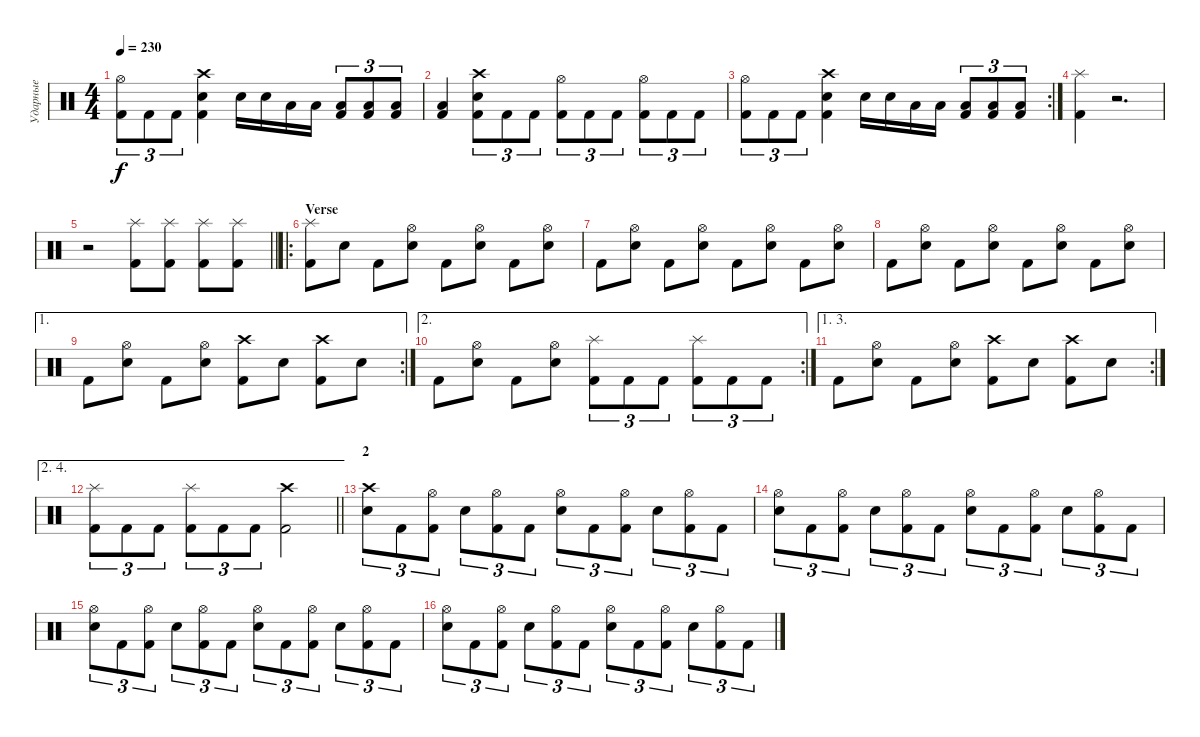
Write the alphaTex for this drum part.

\track ("Ударные" "Ударные") {instrument percussion}
\staff {score}
\articulation defaults
\ts (4 4)
\tempo 230
\clef neutral
\ks c
("Hi-Hat (open)" "Kick (hit) 2").8{tu (3 2) dy f} "Kick (hit) 2".8{tu (3 2)} "Kick (hit) 2".8{tu (3 2)} ("Snare (hit) 2" "Crash high (hit)" "Kick (hit) 2").4 "Snare (hit) 2".16 "Snare (hit) 2".16 "Low Tom (hit)".16 "Low Tom (hit)".16 ("Kick (hit) 2" "Low Floor Tom (hit)").8{tu (3 2)} ("Kick (hit) 2" "Low Floor Tom (hit)").8{tu (3 2)} ("Kick (hit) 2" "Low Floor Tom (hit)").8{tu (3 2)} |
("Low Floor Tom (hit)" "Kick (hit) 2").4 ("Snare (hit) 2" "Crash high (hit)" "Kick (hit) 2").8{tu (3 2)} "Kick (hit) 2".8{tu (3 2)} "Kick (hit) 2".8{tu (3 2)} ("Hi-Hat (open)" "Kick (hit) 2").8{tu (3 2)} "Kick (hit) 2".8{tu (3 2)} "Kick (hit) 2".8{tu (3 2)} ("Hi-Hat (open)" "Kick (hit) 2").8{tu (3 2)} "Kick (hit) 2".8{tu (3 2)} "Kick (hit) 2".8{tu (3 2)} |
\rc 2
("Hi-Hat (open)" "Kick (hit) 2").8{tu (3 2)} "Kick (hit) 2".8{tu (3 2)} "Kick (hit) 2".8{tu (3 2)} ("Snare (hit) 2" "Crash high (hit)" "Kick (hit) 2").4 "Snare (hit) 2".16 "Snare (hit) 2".16 "Low Tom (hit)".16 "Low Tom (hit)".16 ("Kick (hit) 2" "Low Floor Tom (hit)").8{tu (3 2)} ("Kick (hit) 2" "Low Floor Tom (hit)").8{tu (3 2)} ("Kick (hit) 2" "Low Floor Tom (hit)").8{tu (3 2)} |
("Splash (hit)" "Kick (hit) 2").4 r.2{d} |
\barLineRight lightlight
r.2 ("Splash (hit)" "Kick (hit) 2").8 ("Splash (hit)" "Kick (hit) 2").8 ("Splash (hit)" "Kick (hit) 2").8 ("Splash (hit)" "Kick (hit) 2").8 |
\ro
\section ("" "Verse")
("Splash (hit)" "Kick (hit) 2").8 "Snare (hit) 2".8 "Kick (hit) 2".8 ("Hi-Hat (open)" "Snare (hit) 2").8 "Kick (hit) 2".8 ("Hi-Hat (open)" "Snare (hit) 2").8 "Kick (hit) 2".8 ("Hi-Hat (open)" "Snare (hit) 2").8 |
"Kick (hit) 2".8 ("Hi-Hat (open)" "Snare (hit) 2").8 "Kick (hit) 2".8 ("Hi-Hat (open)" "Snare (hit) 2").8 "Kick (hit) 2".8 ("Hi-Hat (open)" "Snare (hit) 2").8 "Kick (hit) 2".8 ("Hi-Hat (open)" "Snare (hit) 2").8 |
"Kick (hit) 2".8 ("Hi-Hat (open)" "Snare (hit) 2").8 "Kick (hit) 2".8 ("Hi-Hat (open)" "Snare (hit) 2").8 "Kick (hit) 2".8 ("Hi-Hat (open)" "Snare (hit) 2").8 "Kick (hit) 2".8 ("Hi-Hat (open)" "Snare (hit) 2").8 |
\ae 1
\rc 2 "Kick (hit) 2".8
("Hi-Hat (open)" "Snare (hit) 2").8 "Kick (hit) 2".8 ("Hi-Hat (open)" "Snare (hit) 2").8 ("Crash high (hit)" "Kick (hit) 2").8 "Snare (hit) 2".8 ("Crash high (hit)" "Kick (hit) 2").8 "Snare (hit) 2".8 |
\ae 2
\rc 2 "Kick (hit) 2".8
("Hi-Hat (open)" "Snare (hit) 2").8 "Kick (hit) 2".8 ("Hi-Hat (open)" "Snare (hit) 2").8 ("Splash (hit)" "Kick (hit) 2").8{tu (3 2)} "Kick (hit) 2".8{tu (3 2)} "Kick (hit) 2".8{tu (3 2)} ("Splash (hit)" "Kick (hit) 2").8{tu (3 2)} "Kick (hit) 2".8{tu (3 2)} "Kick (hit) 2".8{tu (3 2)} |
\ae (1 3)
\rc 2 "Kick (hit) 2".8
("Hi-Hat (open)" "Snare (hit) 2").8 "Kick (hit) 2".8 ("Hi-Hat (open)" "Snare (hit) 2").8 ("Crash high (hit)" "Kick (hit) 2").8 "Snare (hit) 2".8 ("Crash high (hit)" "Kick (hit) 2").8 "Snare (hit) 2".8 |
\ae (2 4)
\barLineRight lightlight
("Splash (hit)" "Kick (hit) 2").8{tu (3 2)} "Kick (hit) 2".8{tu (3 2)} "Kick (hit) 2".8{tu (3 2)} ("Splash (hit)" "Kick (hit) 2").8{tu (3 2)} "Kick (hit) 2".8{tu (3 2)} "Kick (hit) 2".8{tu (3 2)} ("Crash high (hit)" "Kick (hit) 2").2 |
\section ("" "2")
("Crash high (hit)" "Snare (hit) 2").8{tu (3 2)} "Kick (hit) 2".8{tu (3 2)} ("Hi-Hat (open)" "Kick (hit) 2").8{tu (3 2)} "Snare (hit) 2".8{tu (3 2)} ("Hi-Hat (open)" "Kick (hit) 2").8{tu (3 2)} "Kick (hit) 2".8{tu (3 2)} ("Hi-Hat (open)" "Snare (hit) 2").8{tu (3 2)} "Kick (hit) 2".8{tu (3 2)} ("Hi-Hat (open)" "Kick (hit) 2").8{tu (3 2)} "Snare (hit) 2".8{tu (3 2)} ("Hi-Hat (open)" "Kick (hit) 2").8{tu (3 2)} "Kick (hit) 2".8{tu (3 2)} |
("Hi-Hat (open)" "Snare (hit) 2").8{tu (3 2)} "Kick (hit) 2".8{tu (3 2)} ("Hi-Hat (open)" "Kick (hit) 2").8{tu (3 2)} "Snare (hit) 2".8{tu (3 2)} ("Hi-Hat (open)" "Kick (hit) 2").8{tu (3 2)} "Kick (hit) 2".8{tu (3 2)} ("Hi-Hat (open)" "Snare (hit) 2").8{tu (3 2)} "Kick (hit) 2".8{tu (3 2)} ("Hi-Hat (open)" "Kick (hit) 2").8{tu (3 2)} "Snare (hit) 2".8{tu (3 2)} ("Hi-Hat (open)" "Kick (hit) 2").8{tu (3 2)} "Kick (hit) 2".8{tu (3 2)} |
("Hi-Hat (open)" "Snare (hit) 2").8{tu (3 2)} "Kick (hit) 2".8{tu (3 2)} ("Hi-Hat (open)" "Kick (hit) 2").8{tu (3 2)} "Snare (hit) 2".8{tu (3 2)} ("Hi-Hat (open)" "Kick (hit) 2").8{tu (3 2)} "Kick (hit) 2".8{tu (3 2)} ("Hi-Hat (open)" "Snare (hit) 2").8{tu (3 2)} "Kick (hit) 2".8{tu (3 2)} ("Hi-Hat (open)" "Kick (hit) 2").8{tu (3 2)} "Snare (hit) 2".8{tu (3 2)} ("Hi-Hat (open)" "Kick (hit) 2").8{tu (3 2)} "Kick (hit) 2".8{tu (3 2)} |
("Hi-Hat (open)" "Snare (hit) 2").8{tu (3 2)} "Kick (hit) 2".8{tu (3 2)} ("Hi-Hat (open)" "Kick (hit) 2").8{tu (3 2)} "Snare (hit) 2".8{tu (3 2)} ("Hi-Hat (open)" "Kick (hit) 2").8{tu (3 2)} "Kick (hit) 2".8{tu (3 2)} ("Hi-Hat (open)" "Snare (hit) 2").8{tu (3 2)} "Kick (hit) 2".8{tu (3 2)} ("Hi-Hat (open)" "Kick (hit) 2").8{tu (3 2)} "Snare (hit) 2".8{tu (3 2)} ("Hi-Hat (open)" "Kick (hit) 2").8{tu (3 2)} "Kick (hit) 2".8{tu (3 2)}
